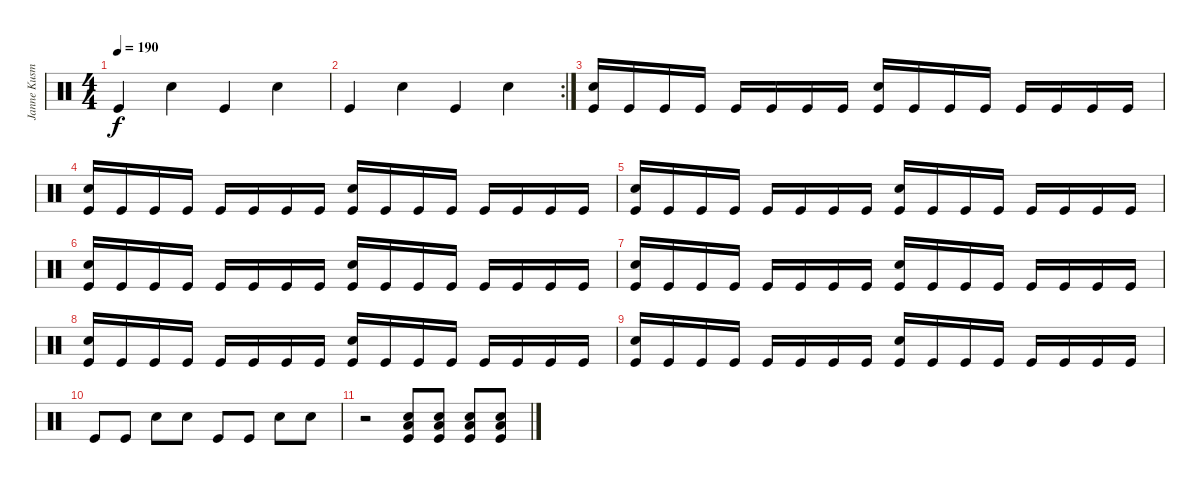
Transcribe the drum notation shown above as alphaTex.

\track ("Janne Kusmin" "Janne Kusm") {instrument percussion}
\staff {score}
\articulation defaults
\ts (4 4)
\tempo 190
\clef neutral
\ks c "Kick (hit)".4{dy f} "Electric Snare (hit)".4 "Kick (hit)".4 "Electric Snare (hit)".4
|
\rc 2 "Kick (hit)".4 "Electric Snare (hit)".4 "Kick (hit)".4 "Electric Snare (hit)".4
|
("Electric Snare (hit)" "Kick (hit)").16 "Kick (hit)".16 "Kick (hit)".16 "Kick (hit)".16 "Kick (hit)".16 "Kick (hit)".16 "Kick (hit)".16 "Kick (hit)".16 ("Electric Snare (hit)" "Kick (hit)").16 "Kick (hit)".16 "Kick (hit)".16 "Kick (hit)".16 "Kick (hit)".16 "Kick (hit)".16 "Kick (hit)".16 "Kick (hit)".16 |
("Electric Snare (hit)" "Kick (hit)").16 "Kick (hit)".16 "Kick (hit)".16 "Kick (hit)".16 "Kick (hit)".16 "Kick (hit)".16 "Kick (hit)".16 "Kick (hit)".16 ("Electric Snare (hit)" "Kick (hit)").16 "Kick (hit)".16 "Kick (hit)".16 "Kick (hit)".16 "Kick (hit)".16 "Kick (hit)".16 "Kick (hit)".16 "Kick (hit)".16 |
("Electric Snare (hit)" "Kick (hit)").16 "Kick (hit)".16 "Kick (hit)".16 "Kick (hit)".16 "Kick (hit)".16 "Kick (hit)".16 "Kick (hit)".16 "Kick (hit)".16 ("Electric Snare (hit)" "Kick (hit)").16 "Kick (hit)".16 "Kick (hit)".16 "Kick (hit)".16 "Kick (hit)".16 "Kick (hit)".16 "Kick (hit)".16 "Kick (hit)".16 |
("Electric Snare (hit)" "Kick (hit)").16 "Kick (hit)".16 "Kick (hit)".16 "Kick (hit)".16 "Kick (hit)".16 "Kick (hit)".16 "Kick (hit)".16 "Kick (hit)".16 ("Electric Snare (hit)" "Kick (hit)").16 "Kick (hit)".16 "Kick (hit)".16 "Kick (hit)".16 "Kick (hit)".16 "Kick (hit)".16 "Kick (hit)".16 "Kick (hit)".16 |
("Electric Snare (hit)" "Kick (hit)").16 "Kick (hit)".16 "Kick (hit)".16 "Kick (hit)".16 "Kick (hit)".16 "Kick (hit)".16 "Kick (hit)".16 "Kick (hit)".16 ("Electric Snare (hit)" "Kick (hit)").16 "Kick (hit)".16 "Kick (hit)".16 "Kick (hit)".16 "Kick (hit)".16 "Kick (hit)".16 "Kick (hit)".16 "Kick (hit)".16 |
("Electric Snare (hit)" "Kick (hit)").16 "Kick (hit)".16 "Kick (hit)".16 "Kick (hit)".16 "Kick (hit)".16 "Kick (hit)".16 "Kick (hit)".16 "Kick (hit)".16 ("Electric Snare (hit)" "Kick (hit)").16 "Kick (hit)".16 "Kick (hit)".16 "Kick (hit)".16 "Kick (hit)".16 "Kick (hit)".16 "Kick (hit)".16 "Kick (hit)".16 |
("Electric Snare (hit)" "Kick (hit)").16 "Kick (hit)".16 "Kick (hit)".16 "Kick (hit)".16 "Kick (hit)".16 "Kick (hit)".16 "Kick (hit)".16 "Kick (hit)".16 ("Electric Snare (hit)" "Kick (hit)").16 "Kick (hit)".16 "Kick (hit)".16 "Kick (hit)".16 "Kick (hit)".16 "Kick (hit)".16 "Kick (hit)".16 "Kick (hit)".16 |
"Kick (hit)".8 "Kick (hit)".8 "Electric Snare (hit)".8 "Electric Snare (hit)".8 "Kick (hit)".8 "Kick (hit)".8 "Electric Snare (hit)".8 "Electric Snare (hit)".8 |
r.2 ("Low Tom (hit)" "Electric Snare (hit)" "Kick (hit)").8 ("Low Tom (hit)" "Electric Snare (hit)" "Kick (hit)").8 ("Low Tom (hit)" "Electric Snare (hit)" "Kick (hit)").8 ("Low Tom (hit)" "Electric Snare (hit)" "Kick (hit)").8
